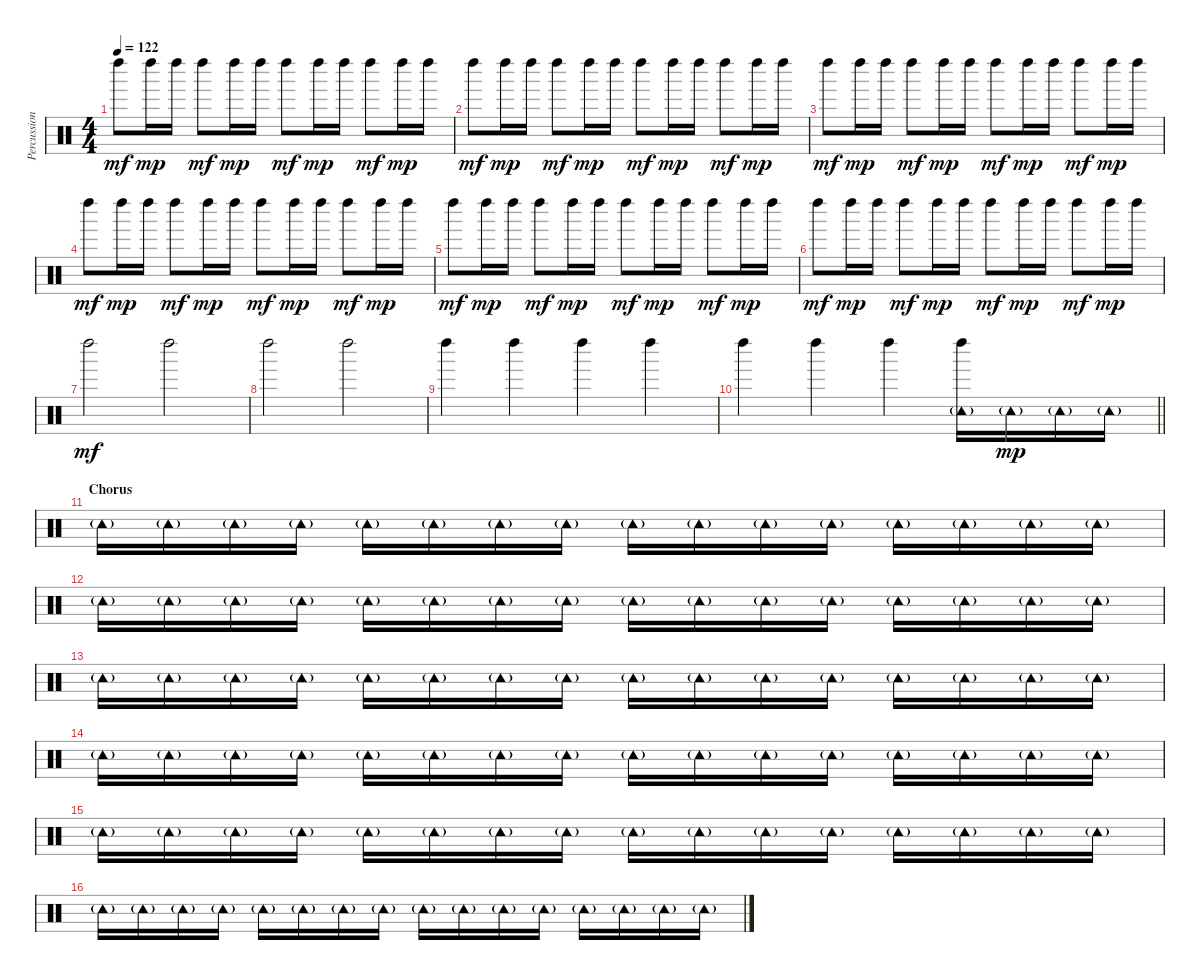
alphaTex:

\track ("Percussioni" "Percussion") {instrument percussion}
\staff {score}
\articulation defaults
\ts (4 4)
\tempo 122
\clef neutral
\ks c "Left Maraca (hit)".8{dy mf} "Left Maraca (hit)".16{dy mp} "Left Maraca (hit)".16 "Left Maraca (hit)".8{dy mf} "Left Maraca (hit)".16{dy mp} "Left Maraca (hit)".16 "Left Maraca (hit)".8{dy mf} "Left Maraca (hit)".16{dy mp} "Left Maraca (hit)".16 "Left Maraca (hit)".8{dy mf} "Left Maraca (hit)".16{dy mp} "Left Maraca (hit)".16
|
"Left Maraca (hit)".8{dy mf} "Left Maraca (hit)".16{dy mp} "Left Maraca (hit)".16 "Left Maraca (hit)".8{dy mf} "Left Maraca (hit)".16{dy mp} "Left Maraca (hit)".16 "Left Maraca (hit)".8{dy mf} "Left Maraca (hit)".16{dy mp} "Left Maraca (hit)".16 "Left Maraca (hit)".8{dy mf} "Left Maraca (hit)".16{dy mp} "Left Maraca (hit)".16 |
"Left Maraca (hit)".8{dy mf} "Left Maraca (hit)".16{dy mp} "Left Maraca (hit)".16 "Left Maraca (hit)".8{dy mf} "Left Maraca (hit)".16{dy mp} "Left Maraca (hit)".16 "Left Maraca (hit)".8{dy mf} "Left Maraca (hit)".16{dy mp} "Left Maraca (hit)".16 "Left Maraca (hit)".8{dy mf} "Left Maraca (hit)".16{dy mp} "Left Maraca (hit)".16 |
"Left Maraca (hit)".8{dy mf} "Left Maraca (hit)".16{dy mp} "Left Maraca (hit)".16 "Left Maraca (hit)".8{dy mf} "Left Maraca (hit)".16{dy mp} "Left Maraca (hit)".16 "Left Maraca (hit)".8{dy mf} "Left Maraca (hit)".16{dy mp} "Left Maraca (hit)".16 "Left Maraca (hit)".8{dy mf} "Left Maraca (hit)".16{dy mp} "Left Maraca (hit)".16 |
"Left Maraca (hit)".8{dy mf} "Left Maraca (hit)".16{dy mp} "Left Maraca (hit)".16 "Left Maraca (hit)".8{dy mf} "Left Maraca (hit)".16{dy mp} "Left Maraca (hit)".16 "Left Maraca (hit)".8{dy mf} "Left Maraca (hit)".16{dy mp} "Left Maraca (hit)".16 "Left Maraca (hit)".8{dy mf} "Left Maraca (hit)".16{dy mp} "Left Maraca (hit)".16 |
"Left Maraca (hit)".8{dy mf} "Left Maraca (hit)".16{dy mp} "Left Maraca (hit)".16 "Left Maraca (hit)".8{dy mf} "Left Maraca (hit)".16{dy mp} "Left Maraca (hit)".16 "Left Maraca (hit)".8{dy mf} "Left Maraca (hit)".16{dy mp} "Left Maraca (hit)".16 "Left Maraca (hit)".8{dy mf} "Left Maraca (hit)".16{dy mp} "Left Maraca (hit)".16 |
"Left Maraca (hit)".2{dy mf} "Left Maraca (hit)".2 |
"Left Maraca (hit)".2 "Left Maraca (hit)".2 |
"Left Maraca (hit)".4 "Left Maraca (hit)".4 "Left Maraca (hit)".4 "Left Maraca (hit)".4 |
\barLineRight lightlight "Left Maraca (hit)".4 "Left Maraca (hit)".4 "Left Maraca (hit)".4
("Tambourine (hit)"{g} "Left Maraca (hit)").16 "Tambourine (hit)"{g}.16{dy mp} "Tambourine (hit)"{g}.16 "Tambourine (hit)"{g}.16 |
\section ("" "Chorus")
"Tambourine (hit)"{g}.16 "Tambourine (hit)"{g}.16 "Tambourine (hit)"{g}.16 "Tambourine (hit)"{g}.16 "Tambourine (hit)"{g}.16 "Tambourine (hit)"{g}.16 "Tambourine (hit)"{g}.16 "Tambourine (hit)"{g}.16 "Tambourine (hit)"{g}.16 "Tambourine (hit)"{g}.16 "Tambourine (hit)"{g}.16 "Tambourine (hit)"{g}.16 "Tambourine (hit)"{g}.16 "Tambourine (hit)"{g}.16 "Tambourine (hit)"{g}.16 "Tambourine (hit)"{g}.16 |
"Tambourine (hit)"{g}.16 "Tambourine (hit)"{g}.16 "Tambourine (hit)"{g}.16 "Tambourine (hit)"{g}.16 "Tambourine (hit)"{g}.16 "Tambourine (hit)"{g}.16 "Tambourine (hit)"{g}.16 "Tambourine (hit)"{g}.16 "Tambourine (hit)"{g}.16 "Tambourine (hit)"{g}.16 "Tambourine (hit)"{g}.16 "Tambourine (hit)"{g}.16 "Tambourine (hit)"{g}.16 "Tambourine (hit)"{g}.16 "Tambourine (hit)"{g}.16 "Tambourine (hit)"{g}.16 |
"Tambourine (hit)"{g}.16 "Tambourine (hit)"{g}.16 "Tambourine (hit)"{g}.16 "Tambourine (hit)"{g}.16 "Tambourine (hit)"{g}.16 "Tambourine (hit)"{g}.16 "Tambourine (hit)"{g}.16 "Tambourine (hit)"{g}.16 "Tambourine (hit)"{g}.16 "Tambourine (hit)"{g}.16 "Tambourine (hit)"{g}.16 "Tambourine (hit)"{g}.16 "Tambourine (hit)"{g}.16 "Tambourine (hit)"{g}.16 "Tambourine (hit)"{g}.16 "Tambourine (hit)"{g}.16 |
"Tambourine (hit)"{g}.16 "Tambourine (hit)"{g}.16 "Tambourine (hit)"{g}.16 "Tambourine (hit)"{g}.16 "Tambourine (hit)"{g}.16 "Tambourine (hit)"{g}.16 "Tambourine (hit)"{g}.16 "Tambourine (hit)"{g}.16 "Tambourine (hit)"{g}.16 "Tambourine (hit)"{g}.16 "Tambourine (hit)"{g}.16 "Tambourine (hit)"{g}.16 "Tambourine (hit)"{g}.16 "Tambourine (hit)"{g}.16 "Tambourine (hit)"{g}.16 "Tambourine (hit)"{g}.16 |
"Tambourine (hit)"{g}.16 "Tambourine (hit)"{g}.16 "Tambourine (hit)"{g}.16 "Tambourine (hit)"{g}.16 "Tambourine (hit)"{g}.16 "Tambourine (hit)"{g}.16 "Tambourine (hit)"{g}.16 "Tambourine (hit)"{g}.16 "Tambourine (hit)"{g}.16 "Tambourine (hit)"{g}.16 "Tambourine (hit)"{g}.16 "Tambourine (hit)"{g}.16 "Tambourine (hit)"{g}.16 "Tambourine (hit)"{g}.16 "Tambourine (hit)"{g}.16 "Tambourine (hit)"{g}.16 |
"Tambourine (hit)"{g}.16 "Tambourine (hit)"{g}.16 "Tambourine (hit)"{g}.16 "Tambourine (hit)"{g}.16 "Tambourine (hit)"{g}.16 "Tambourine (hit)"{g}.16 "Tambourine (hit)"{g}.16 "Tambourine (hit)"{g}.16 "Tambourine (hit)"{g}.16 "Tambourine (hit)"{g}.16 "Tambourine (hit)"{g}.16 "Tambourine (hit)"{g}.16 "Tambourine (hit)"{g}.16 "Tambourine (hit)"{g}.16 "Tambourine (hit)"{g}.16 "Tambourine (hit)"{g}.16
